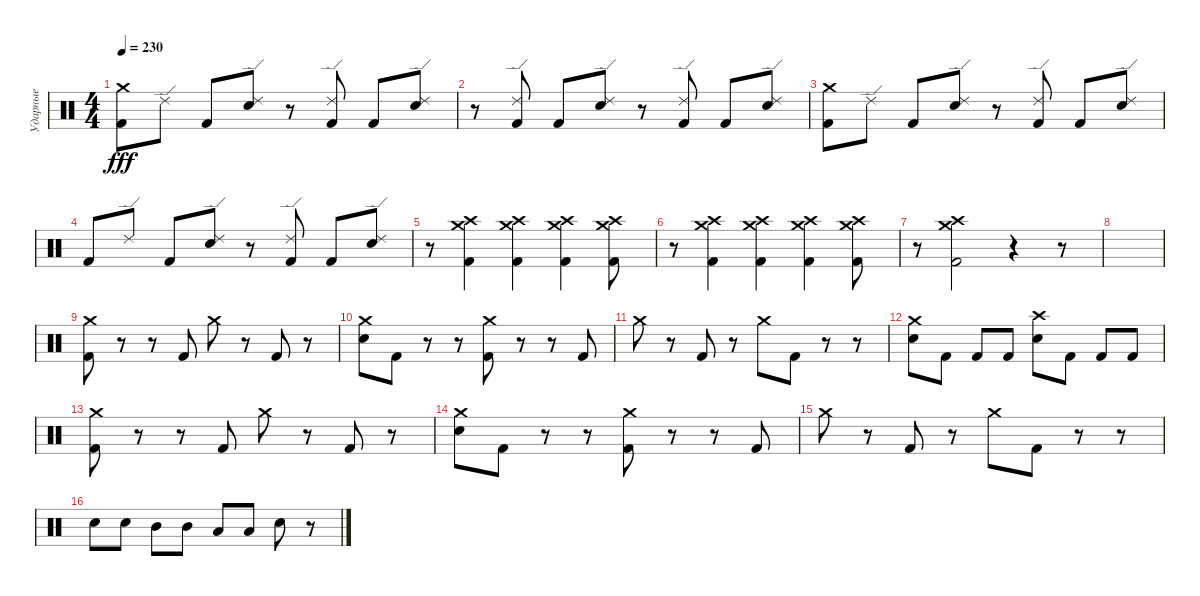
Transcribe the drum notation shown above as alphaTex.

\track ("Ударные" "Ударные") {instrument percussion}
\staff {score}
\articulation defaults
\ts (4 4)
\tempo 230
\clef neutral
\ks c
("Kick (hit) 2" "Crash medium (hit)").8{dy fff} "Ride (edge) 2".8 "Kick (hit) 2".8 ("Electric Snare (hit)" "Ride (edge) 2").8 r.8 ("Kick (hit) 2" "Ride (edge) 2").8 "Kick (hit) 2".8 ("Electric Snare (hit)" "Ride (edge) 2").8 |
r.8 ("Kick (hit) 2" "Ride (edge) 2").8 "Kick (hit) 2".8 ("Electric Snare (hit)" "Ride (edge) 2").8 r.8 ("Kick (hit) 2" "Ride (edge) 2").8 "Kick (hit) 2".8 ("Electric Snare (hit)" "Ride (edge) 2").8 |
("Kick (hit) 2" "Crash medium (hit)").8 "Ride (edge) 2".8 "Kick (hit) 2".8 ("Electric Snare (hit)" "Ride (edge) 2").8 r.8 ("Kick (hit) 2" "Ride (edge) 2").8 "Kick (hit) 2".8 ("Electric Snare (hit)" "Ride (edge) 2").8 |
"Kick (hit) 2".8 "Ride (edge) 2".8 "Kick (hit) 2".8 ("Electric Snare (hit)" "Ride (edge) 2").8 r.8 ("Kick (hit) 2" "Ride (edge) 2").8 "Kick (hit) 2".8 ("Electric Snare (hit)" "Ride (edge) 2").8 |
r.8 ("Kick (hit) 2" "Crash high (hit)" "Crash medium (hit)").4 ("Kick (hit) 2" "Crash high (hit)" "Crash medium (hit)").4 ("Kick (hit) 2" "Crash high (hit)" "Crash medium (hit)").4 ("Kick (hit) 2" "Crash high (hit)" "Crash medium (hit)").8 |
r.8 ("Kick (hit) 2" "Crash high (hit)" "Crash medium (hit)").4 ("Kick (hit) 2" "Crash high (hit)" "Crash medium (hit)").4 ("Kick (hit) 2" "Crash high (hit)" "Crash medium (hit)").4 ("Kick (hit) 2" "Crash high (hit)" "Crash medium (hit)").8 |
r.8 ("Kick (hit) 2" "Crash high (hit)" "Crash medium (hit)").2 r.4 r.8 |
|
("Kick (hit) 2" "Crash medium (hit)").8 r.8 r.8 "Kick (hit) 2".8 "Crash medium (hit)".8 r.8 "Kick (hit) 2".8 r.8 |
("Electric Snare (hit)" "Crash medium (hit)").8 "Kick (hit) 2".8 r.8 r.8 ("Kick (hit) 2" "Crash medium (hit)").8 r.8 r.8 "Kick (hit) 2".8 |
"Crash medium (hit)".8 r.8 "Kick (hit) 2".8 r.8 "Crash medium (hit)".8 "Kick (hit) 2".8 r.8 r.8 |
("Electric Snare (hit)" "Crash medium (hit)").8 "Kick (hit) 2".8 "Kick (hit) 2".8 "Kick (hit) 2".8 ("Electric Snare (hit)" "Crash high (hit)").8 "Kick (hit) 2".8 "Kick (hit) 2".8 "Kick (hit) 2".8 |
("Kick (hit) 2" "Crash medium (hit)").8 r.8 r.8 "Kick (hit) 2".8 "Crash medium (hit)".8 r.8 "Kick (hit) 2".8 r.8 |
("Electric Snare (hit)" "Crash medium (hit)").8 "Kick (hit) 2".8 r.8 r.8 ("Kick (hit) 2" "Crash medium (hit)").8 r.8 r.8 "Kick (hit) 2".8 |
"Crash medium (hit)".8 r.8 "Kick (hit) 2".8 r.8 "Crash medium (hit)".8 "Kick (hit) 2".8 r.8 r.8 |
"Electric Snare (hit)".8 "Electric Snare (hit)".8 "Mid Tom (hit)".8 "Mid Tom (hit)".8 "Low Tom (hit)".8 "Low Tom (hit)".8 "Electric Snare (hit)".8 r.8
